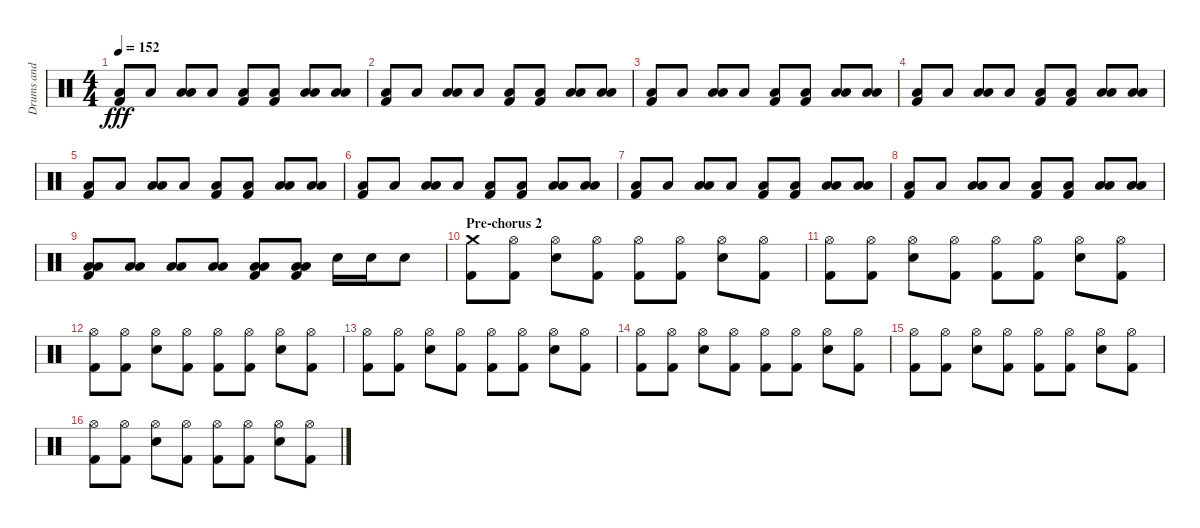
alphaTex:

\track ("Drums and Percussion" "Drums and ") {instrument percussion}
\staff {score}
\articulation defaults
\ts (4 4)
\tempo 152
\clef neutral
\ks c
("Low Floor Tom (hit)" "Kick (hit) 2").8{dy fff} "Low Floor Tom (hit)".8 ("Low Tom (hit)" "Low Floor Tom (hit)").8 "Low Floor Tom (hit)".8 ("Low Floor Tom (hit)" "Kick (hit) 2").8 ("Low Floor Tom (hit)" "Kick (hit) 2").8 ("Low Tom (hit)" "Low Floor Tom (hit)").8 ("Low Tom (hit)" "Low Floor Tom (hit)").8 |
("Low Floor Tom (hit)" "Kick (hit) 2").8 "Low Floor Tom (hit)".8 ("Low Tom (hit)" "Low Floor Tom (hit)").8 "Low Floor Tom (hit)".8 ("Low Floor Tom (hit)" "Kick (hit) 2").8 ("Low Floor Tom (hit)" "Kick (hit) 2").8 ("Low Tom (hit)" "Low Floor Tom (hit)").8 ("Low Tom (hit)" "Low Floor Tom (hit)").8 |
("Low Floor Tom (hit)" "Kick (hit) 2").8 "Low Floor Tom (hit)".8 ("Low Tom (hit)" "Low Floor Tom (hit)").8 "Low Floor Tom (hit)".8 ("Low Floor Tom (hit)" "Kick (hit) 2").8 ("Low Floor Tom (hit)" "Kick (hit) 2").8 ("Low Tom (hit)" "Low Floor Tom (hit)").8 ("Low Tom (hit)" "Low Floor Tom (hit)").8 |
("Low Floor Tom (hit)" "Kick (hit) 2").8 "Low Floor Tom (hit)".8 ("Low Tom (hit)" "Low Floor Tom (hit)").8 "Low Floor Tom (hit)".8 ("Low Floor Tom (hit)" "Kick (hit) 2").8 ("Low Floor Tom (hit)" "Kick (hit) 2").8 ("Low Tom (hit)" "Low Floor Tom (hit)").8 ("Low Tom (hit)" "Low Floor Tom (hit)").8 |
("Low Floor Tom (hit)" "Kick (hit) 2").8 "Low Floor Tom (hit)".8 ("Low Tom (hit)" "Low Floor Tom (hit)").8 "Low Floor Tom (hit)".8 ("Low Floor Tom (hit)" "Kick (hit) 2").8 ("Low Floor Tom (hit)" "Kick (hit) 2").8 ("Low Tom (hit)" "Low Floor Tom (hit)").8 ("Low Tom (hit)" "Low Floor Tom (hit)").8 |
("Low Floor Tom (hit)" "Kick (hit) 2").8 "Low Floor Tom (hit)".8 ("Low Tom (hit)" "Low Floor Tom (hit)").8 "Low Floor Tom (hit)".8 ("Low Floor Tom (hit)" "Kick (hit) 2").8 ("Low Floor Tom (hit)" "Kick (hit) 2").8 ("Low Tom (hit)" "Low Floor Tom (hit)").8 ("Low Tom (hit)" "Low Floor Tom (hit)").8 |
("Low Floor Tom (hit)" "Kick (hit) 2").8 "Low Floor Tom (hit)".8 ("Low Tom (hit)" "Low Floor Tom (hit)").8 "Low Floor Tom (hit)".8 ("Low Floor Tom (hit)" "Kick (hit) 2").8 ("Low Floor Tom (hit)" "Kick (hit) 2").8 ("Low Tom (hit)" "Low Floor Tom (hit)").8 ("Low Tom (hit)" "Low Floor Tom (hit)").8 |
("Low Floor Tom (hit)" "Kick (hit) 2").8 "Low Floor Tom (hit)".8 ("Low Tom (hit)" "Low Floor Tom (hit)").8 "Low Floor Tom (hit)".8 ("Low Floor Tom (hit)" "Kick (hit) 2").8 ("Low Floor Tom (hit)" "Kick (hit) 2").8 ("Low Tom (hit)" "Low Floor Tom (hit)").8 ("Low Tom (hit)" "Low Floor Tom (hit)").8 |
("Low Tom (hit)" "Low Floor Tom (hit)" "Kick (hit) 2").8 ("Low Tom (hit)" "Low Floor Tom (hit)").8 ("Low Tom (hit)" "Low Floor Tom (hit)").8 ("Low Tom (hit)" "Low Floor Tom (hit)").8 ("Low Tom (hit)" "Low Floor Tom (hit)" "Kick (hit) 2").8 ("Low Tom (hit)" "Low Floor Tom (hit)" "Kick (hit) 2").8 "Snare (hit) 2".16 "Snare (hit) 2".16 "Snare (hit) 2".8 |
\section ("" "Pre-chorus 2")
("Crash medium (hit)" "Kick (hit) 2").8 ("Hi-Hat (open)" "Kick (hit) 2").8 ("Hi-Hat (open)" "Snare (hit) 2").8 ("Hi-Hat (open)" "Kick (hit) 2").8 ("Hi-Hat (open)" "Kick (hit) 2").8 ("Hi-Hat (open)" "Kick (hit) 2").8 ("Hi-Hat (open)" "Snare (hit) 2").8 ("Hi-Hat (open)" "Kick (hit) 2").8 |
("Hi-Hat (open)" "Kick (hit) 2").8 ("Hi-Hat (open)" "Kick (hit) 2").8 ("Hi-Hat (open)" "Snare (hit) 2").8 ("Hi-Hat (open)" "Kick (hit) 2").8 ("Hi-Hat (open)" "Kick (hit) 2").8 ("Hi-Hat (open)" "Kick (hit) 2").8 ("Hi-Hat (open)" "Snare (hit) 2").8 ("Hi-Hat (open)" "Kick (hit) 2").8 |
("Hi-Hat (open)" "Kick (hit) 2").8 ("Hi-Hat (open)" "Kick (hit) 2").8 ("Hi-Hat (open)" "Snare (hit) 2").8 ("Hi-Hat (open)" "Kick (hit) 2").8 ("Hi-Hat (open)" "Kick (hit) 2").8 ("Hi-Hat (open)" "Kick (hit) 2").8 ("Hi-Hat (open)" "Snare (hit) 2").8 ("Hi-Hat (open)" "Kick (hit) 2").8 |
("Hi-Hat (open)" "Kick (hit) 2").8 ("Hi-Hat (open)" "Kick (hit) 2").8 ("Hi-Hat (open)" "Snare (hit) 2").8 ("Hi-Hat (open)" "Kick (hit) 2").8 ("Hi-Hat (open)" "Kick (hit) 2").8 ("Hi-Hat (open)" "Kick (hit) 2").8 ("Hi-Hat (open)" "Snare (hit) 2").8 ("Hi-Hat (open)" "Kick (hit) 2").8 |
("Hi-Hat (open)" "Kick (hit) 2").8 ("Hi-Hat (open)" "Kick (hit) 2").8 ("Hi-Hat (open)" "Snare (hit) 2").8 ("Hi-Hat (open)" "Kick (hit) 2").8 ("Hi-Hat (open)" "Kick (hit) 2").8 ("Hi-Hat (open)" "Kick (hit) 2").8 ("Hi-Hat (open)" "Snare (hit) 2").8 ("Hi-Hat (open)" "Kick (hit) 2").8 |
("Hi-Hat (open)" "Kick (hit) 2").8 ("Hi-Hat (open)" "Kick (hit) 2").8 ("Hi-Hat (open)" "Snare (hit) 2").8 ("Hi-Hat (open)" "Kick (hit) 2").8 ("Hi-Hat (open)" "Kick (hit) 2").8 ("Hi-Hat (open)" "Kick (hit) 2").8 ("Hi-Hat (open)" "Snare (hit) 2").8 ("Hi-Hat (open)" "Kick (hit) 2").8 |
("Hi-Hat (open)" "Kick (hit) 2").8 ("Hi-Hat (open)" "Kick (hit) 2").8 ("Hi-Hat (open)" "Snare (hit) 2").8 ("Hi-Hat (open)" "Kick (hit) 2").8 ("Hi-Hat (open)" "Kick (hit) 2").8 ("Hi-Hat (open)" "Kick (hit) 2").8 ("Hi-Hat (open)" "Snare (hit) 2").8 ("Hi-Hat (open)" "Kick (hit) 2").8
